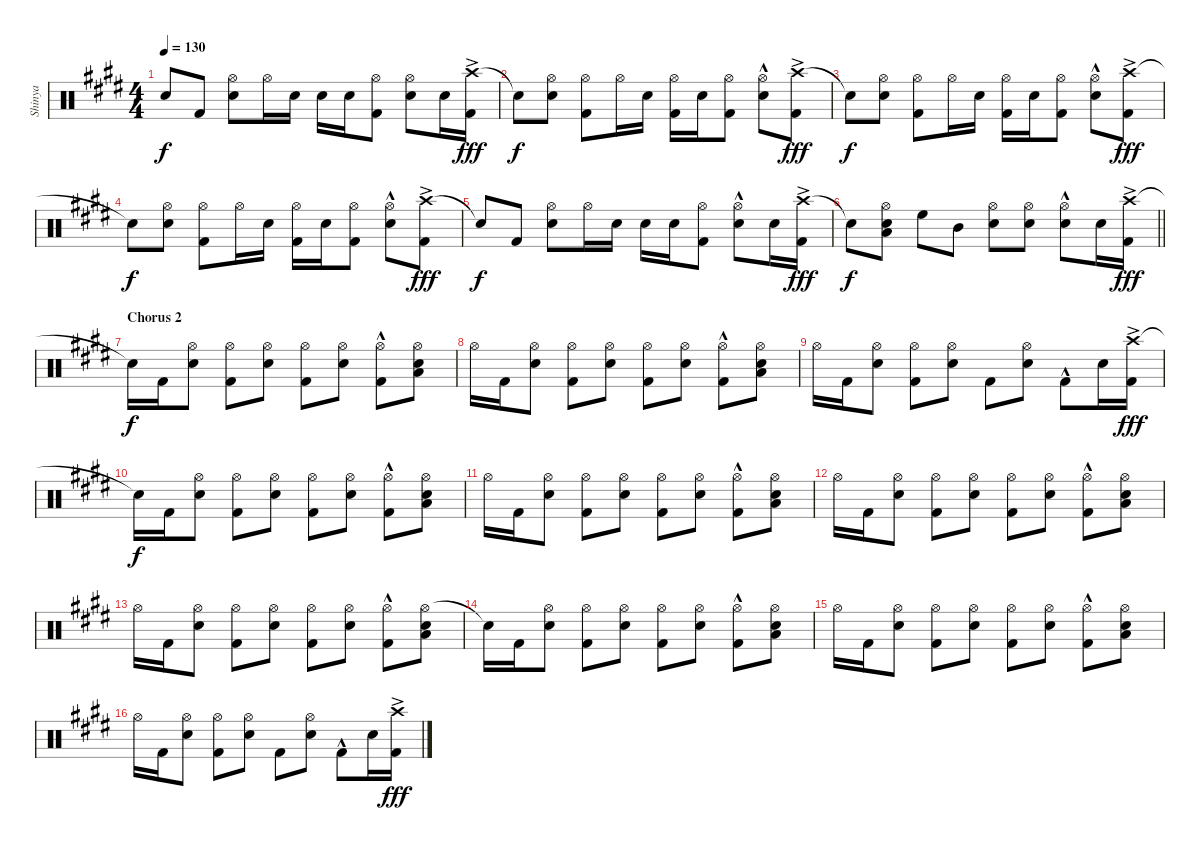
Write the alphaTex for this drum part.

\track ("Shinya" "Shinya") {instrument percussion}
\staff {score}
\articulation defaults
\ts (4 4)
\tempo 130
\clef neutral
\ks e "Snare (hit)"{t}.8{dy f} "Kick (hit) 2".8
("Hi-Hat (open)" "Snare (hit) 2").8 "Hi-Hat (open)".16 "Snare (hit) 2".16 "Snare (hit) 2".16 "Snare (hit) 2".16 ("Hi-Hat (open)" "Kick (hit) 2").8 ("Hi-Hat (open)" "Snare (hit) 2").8 "Snare (hit) 2".16 ("Crash high (hit)"{ac} "Kick (hit) 2").16{dy fff} |
"Snare (hit)"{t}.8{dy f} ("Hi-Hat (open)" "Snare (hit) 2").8 ("Hi-Hat (open)" "Kick (hit) 2").8 "Hi-Hat (open)".16 "Snare (hit) 2".16 ("Hi-Hat (open)" "Kick (hit) 2").16 "Snare (hit) 2".16 ("Hi-Hat (open)" "Kick (hit) 2").8 ("Hi-Hat (open)"{hac} "Snare (hit) 2").8 ("Crash high (hit)"{ac} "Kick (hit) 2").8{dy fff} |
"Snare (hit)"{t}.8{dy f} ("Hi-Hat (open)" "Snare (hit) 2").8 ("Hi-Hat (open)" "Kick (hit) 2").8 "Hi-Hat (open)".16 "Snare (hit) 2".16 ("Hi-Hat (open)" "Kick (hit) 2").16 "Snare (hit) 2".16 ("Hi-Hat (open)" "Kick (hit) 2").8 ("Hi-Hat (open)"{hac} "Snare (hit) 2").8 ("Crash high (hit)"{ac} "Kick (hit) 2").8{dy fff} |
"Snare (hit)"{t}.8{dy f} ("Hi-Hat (open)" "Snare (hit) 2").8 ("Hi-Hat (open)" "Kick (hit) 2").8 "Hi-Hat (open)".16 "Snare (hit) 2".16 ("Hi-Hat (open)" "Kick (hit) 2").16 "Snare (hit) 2".16 ("Hi-Hat (open)" "Kick (hit) 2").8 ("Hi-Hat (open)"{hac} "Snare (hit) 2").8 ("Crash high (hit)"{ac} "Kick (hit) 2").8{dy fff} |
"Snare (hit)"{t}.8{dy f} "Kick (hit) 2".8 ("Hi-Hat (open)" "Snare (hit) 2").8 "Hi-Hat (open)".16 "Snare (hit) 2".16 "Snare (hit) 2".16 "Snare (hit) 2".16 ("Hi-Hat (open)" "Kick (hit) 2").8 ("Hi-Hat (open)" "Snare (hit) 2"{hac}).8 "Snare (hit) 2".16 ("Crash high (hit)"{ac} "Kick (hit) 2").16{dy fff} |
\barLineRight lightlight "Snare (hit)"{t}.8{dy f}
("Hi-Hat (open)" "Snare (hit) 2" "Low Floor Tom (hit)").8 "High Floor Tom (hit)".8 "Mid Tom (hit)".8 ("Hi-Hat (open)" "Snare (hit) 2").8 ("Hi-Hat (open)" "Snare (hit) 2").8 ("Hi-Hat (open)" "Snare (hit) 2"{hac}).8 "Snare (hit) 2".16 ("Crash high (hit)"{ac} "Kick (hit) 2").16{dy fff} |
\section ("" "Chorus 2")
"Snare (hit)"{t}.16{dy f} "Kick (hit) 2".16 ("Hi-Hat (open)" "Snare (hit) 2").8 ("Hi-Hat (open)" "Kick (hit) 2").8 ("Hi-Hat (open)" "Snare (hit) 2").8 ("Hi-Hat (open)" "Kick (hit) 2").8 ("Hi-Hat (open)" "Snare (hit) 2").8 ("Hi-Hat (open)" "Kick (hit) 2"{hac}).8 ("Hi-Hat (open)" "Low Floor Tom (hit)" "Snare (hit) 2").8 |
"Hi-Hat (open)".16 "Kick (hit) 2".16 ("Hi-Hat (open)" "Snare (hit) 2").8 ("Hi-Hat (open)" "Kick (hit) 2").8 ("Hi-Hat (open)" "Snare (hit) 2").8 ("Hi-Hat (open)" "Kick (hit) 2").8 ("Hi-Hat (open)" "Snare (hit) 2").8 ("Hi-Hat (open)" "Kick (hit) 2"{hac}).8 ("Hi-Hat (open)" "Low Floor Tom (hit)" "Snare (hit) 2").8 |
"Hi-Hat (open)".16 "Kick (hit) 2".16 ("Hi-Hat (open)" "Snare (hit) 2").8 ("Hi-Hat (open)" "Kick (hit) 2").8 ("Hi-Hat (open)" "Snare (hit) 2").8 "Kick (hit) 2".8 ("Hi-Hat (open)" "Snare (hit) 2").8 "Kick (hit) 2"{hac}.8 "Snare (hit) 2".16 ("Crash high (hit)"{ac} "Kick (hit) 2").16{dy fff} |
"Snare (hit)"{t}.16{dy f} "Kick (hit) 2".16 ("Hi-Hat (open)" "Snare (hit) 2").8 ("Hi-Hat (open)" "Kick (hit) 2").8 ("Hi-Hat (open)" "Snare (hit) 2").8 ("Hi-Hat (open)" "Kick (hit) 2").8 ("Hi-Hat (open)" "Snare (hit) 2").8 ("Hi-Hat (open)" "Kick (hit) 2"{hac}).8 ("Hi-Hat (open)" "Low Floor Tom (hit)" "Snare (hit) 2").8 |
"Hi-Hat (open)".16 "Kick (hit) 2".16 ("Hi-Hat (open)" "Snare (hit) 2").8 ("Hi-Hat (open)" "Kick (hit) 2").8 ("Hi-Hat (open)" "Snare (hit) 2").8 ("Hi-Hat (open)" "Kick (hit) 2").8 ("Hi-Hat (open)" "Snare (hit) 2").8 ("Hi-Hat (open)" "Kick (hit) 2"{hac}).8 ("Hi-Hat (open)" "Low Floor Tom (hit)" "Snare (hit) 2").8 |
"Hi-Hat (open)".16 "Kick (hit) 2".16 ("Hi-Hat (open)" "Snare (hit) 2").8 ("Hi-Hat (open)" "Kick (hit) 2").8 ("Hi-Hat (open)" "Snare (hit) 2").8 ("Hi-Hat (open)" "Kick (hit) 2").8 ("Hi-Hat (open)" "Snare (hit) 2").8 ("Hi-Hat (open)" "Kick (hit) 2"{hac}).8 ("Hi-Hat (open)" "Low Floor Tom (hit)" "Snare (hit) 2").8 |
"Hi-Hat (open)".16 "Kick (hit) 2".16 ("Hi-Hat (open)" "Snare (hit) 2").8 ("Hi-Hat (open)" "Kick (hit) 2").8 ("Hi-Hat (open)" "Snare (hit) 2").8 ("Hi-Hat (open)" "Kick (hit) 2").8 ("Hi-Hat (open)" "Snare (hit) 2").8 ("Hi-Hat (open)" "Kick (hit) 2"{hac}).8 ("Hi-Hat (open)" "Low Floor Tom (hit)" "Snare (hit) 2").8 |
"Snare (hit)"{t}.16 "Kick (hit) 2".16 ("Hi-Hat (open)" "Snare (hit) 2").8 ("Hi-Hat (open)" "Kick (hit) 2").8 ("Hi-Hat (open)" "Snare (hit) 2").8 ("Hi-Hat (open)" "Kick (hit) 2").8 ("Hi-Hat (open)" "Snare (hit) 2").8 ("Hi-Hat (open)" "Kick (hit) 2"{hac}).8 ("Hi-Hat (open)" "Low Floor Tom (hit)" "Snare (hit) 2").8 |
"Hi-Hat (open)".16 "Kick (hit) 2".16 ("Hi-Hat (open)" "Snare (hit) 2").8 ("Hi-Hat (open)" "Kick (hit) 2").8 ("Hi-Hat (open)" "Snare (hit) 2").8 ("Hi-Hat (open)" "Kick (hit) 2").8 ("Hi-Hat (open)" "Snare (hit) 2").8 ("Hi-Hat (open)" "Kick (hit) 2"{hac}).8 ("Hi-Hat (open)" "Low Floor Tom (hit)" "Snare (hit) 2").8 |
"Hi-Hat (open)".16 "Kick (hit) 2".16 ("Hi-Hat (open)" "Snare (hit) 2").8 ("Hi-Hat (open)" "Kick (hit) 2").8 ("Hi-Hat (open)" "Snare (hit) 2").8 "Kick (hit) 2".8 ("Hi-Hat (open)" "Snare (hit) 2").8 "Kick (hit) 2"{hac}.8 "Snare (hit) 2".16 ("Crash high (hit)"{ac} "Kick (hit) 2").16{dy fff}
